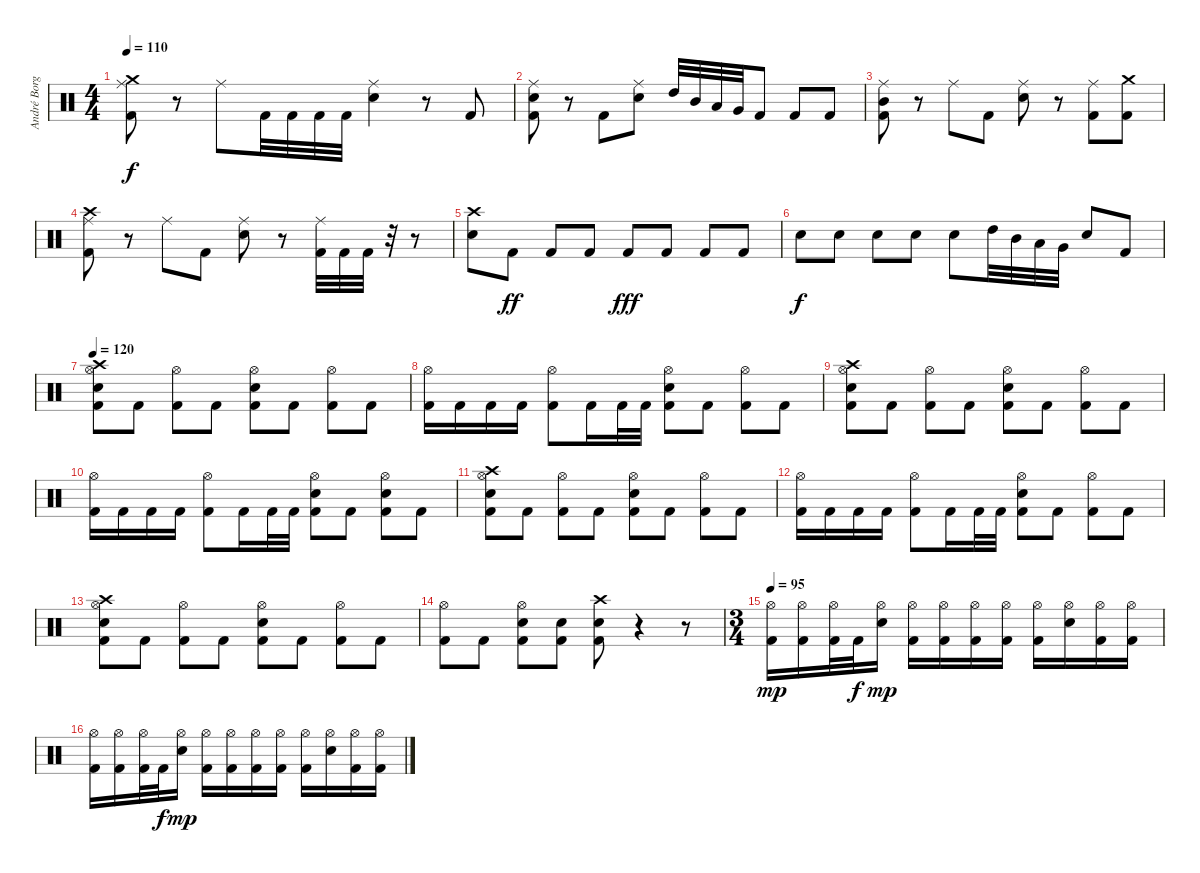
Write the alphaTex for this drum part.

\track ("André Borgman" "André Borg") {instrument percussion}
\staff {score}
\articulation defaults
\ts (4 4)
\tempo 110
\clef neutral
\ks c
("Crash medium (hit)" "Ride (middle)" "Kick (hit) 2").8{dy f} r.8 "Ride (middle)".8 "Kick (hit) 2".32 "Kick (hit) 2".32 "Kick (hit) 2".32 "Kick (hit) 2".32 ("Ride (middle)" "Electric Snare (hit)").4 r.8 "Kick (hit) 2".8 |
("Ride (middle)" "Electric Snare (hit)" "Kick (hit) 2").8 r.8 "Kick (hit) 2".8 ("Ride (middle)" "Electric Snare (hit)").8 "High Tom (hit)".32 "Mid Tom (hit)".32 "Low Tom (hit)".32 "Very Low Tom (hit)".32 "Kick (hit) 2".8 "Kick (hit) 2".8 "Kick (hit) 2".8 |
("Mid Tom (hit)" "Ride (middle)" "Kick (hit) 2").8 r.8 "Ride (middle)".8 "Kick (hit) 2".8 ("Ride (middle)" "Electric Snare (hit)").8 r.8 ("Ride (middle)" "Kick (hit) 2").8 ("Crash medium (hit)" "Kick (hit) 2").8 |
("Crash high (hit)" "Ride (middle)" "Kick (hit) 2").8 r.8 "Ride (middle)".8 "Kick (hit) 2".8 ("Ride (middle)" "Electric Snare (hit)").8 r.8 ("Ride (middle)" "Kick (hit) 2").32 "Kick (hit) 2".32 "Kick (hit) 2".32 r.32 r.8 |
("Crash high (hit)" "Electric Snare (hit)").8 "Kick (hit) 2".8{dy ff} "Kick (hit) 2".8 "Kick (hit) 2".8 "Kick (hit) 2".8{dy fff} "Kick (hit) 2".8 "Kick (hit) 2".8 "Kick (hit) 2".8 |
"Electric Snare (hit)".8{dy f} "Electric Snare (hit)".8 "Electric Snare (hit)".8 "Electric Snare (hit)".8 "Electric Snare (hit)".8 "High Tom (hit)".32 "Mid Tom (hit)".32 "Low Tom (hit)".32 "Very Low Tom (hit)".32 "Electric Snare (hit)".8 "Kick (hit) 2".8 |
\tempo 120
("Crash high (hit)" "Hi-Hat (open)" "Electric Snare (hit)" "Kick (hit) 2").8 "Kick (hit) 2".8 ("Hi-Hat (open)" "Kick (hit) 2").8 "Kick (hit) 2".8 ("Hi-Hat (open)" "Electric Snare (hit)" "Kick (hit) 2").8 "Kick (hit) 2".8 ("Hi-Hat (open)" "Kick (hit) 2").8 "Kick (hit) 2".8 |
("Hi-Hat (open)" "Kick (hit) 2").16 "Kick (hit) 2".16 "Kick (hit) 2".16 "Kick (hit) 2".16 ("Hi-Hat (open)" "Kick (hit) 2").8 "Kick (hit) 2".16 "Kick (hit) 2".32 "Kick (hit) 2".32 ("Hi-Hat (open)" "Electric Snare (hit)" "Kick (hit) 2").8 "Kick (hit) 2".8 ("Hi-Hat (open)" "Kick (hit) 2").8 "Kick (hit) 2".8 |
("Crash high (hit)" "Hi-Hat (open)" "Electric Snare (hit)" "Kick (hit) 2").8 "Kick (hit) 2".8 ("Hi-Hat (open)" "Kick (hit) 2").8 "Kick (hit) 2".8 ("Hi-Hat (open)" "Electric Snare (hit)" "Kick (hit) 2").8 "Kick (hit) 2".8 ("Hi-Hat (open)" "Kick (hit) 2").8 "Kick (hit) 2".8 |
("Hi-Hat (open)" "Kick (hit) 2").16 "Kick (hit) 2".16 "Kick (hit) 2".16 "Kick (hit) 2".16 ("Hi-Hat (open)" "Kick (hit) 2").8 "Kick (hit) 2".16 "Kick (hit) 2".32 "Kick (hit) 2".32 ("Hi-Hat (open)" "Electric Snare (hit)" "Kick (hit) 2").8 "Kick (hit) 2".8 ("Hi-Hat (open)" "Electric Snare (hit)" "Kick (hit) 2").8 "Kick (hit) 2".8 |
("Crash high (hit)" "Hi-Hat (open)" "Electric Snare (hit)" "Kick (hit) 2").8 "Kick (hit) 2".8 ("Hi-Hat (open)" "Kick (hit) 2").8 "Kick (hit) 2".8 ("Hi-Hat (open)" "Electric Snare (hit)" "Kick (hit) 2").8 "Kick (hit) 2".8 ("Hi-Hat (open)" "Kick (hit) 2").8 "Kick (hit) 2".8 |
("Hi-Hat (open)" "Kick (hit) 2").16 "Kick (hit) 2".16 "Kick (hit) 2".16 "Kick (hit) 2".16 ("Hi-Hat (open)" "Kick (hit) 2").8 "Kick (hit) 2".16 "Kick (hit) 2".32 "Kick (hit) 2".32 ("Hi-Hat (open)" "Electric Snare (hit)" "Kick (hit) 2").8 "Kick (hit) 2".8 ("Hi-Hat (open)" "Kick (hit) 2").8 "Kick (hit) 2".8 |
("Crash high (hit)" "Hi-Hat (open)" "Electric Snare (hit)" "Kick (hit) 2").8 "Kick (hit) 2".8 ("Hi-Hat (open)" "Kick (hit) 2").8 "Kick (hit) 2".8 ("Hi-Hat (open)" "Electric Snare (hit)" "Kick (hit) 2").8 "Kick (hit) 2".8 ("Hi-Hat (open)" "Kick (hit) 2").8 "Kick (hit) 2".8 |
("Hi-Hat (open)" "Kick (hit) 2").8 "Kick (hit) 2".8 ("Hi-Hat (open)" "Electric Snare (hit)" "Kick (hit) 2").8 ("Electric Snare (hit)" "Kick (hit) 2").8 ("Crash high (hit)" "Electric Snare (hit)" "Kick (hit) 2").8 r.4 r.8 |
\ts (3 4)
\tempo 95
("Hi-Hat (open)" "Kick (hit) 2").16{dy mp} ("Hi-Hat (open)" "Kick (hit) 2").16 ("Hi-Hat (open)" "Kick (hit) 2").32 "Kick (hit) 2".32{dy f} ("Hi-Hat (open)" "Electric Snare (hit)").16{dy mp} ("Hi-Hat (open)" "Kick (hit) 2").16 ("Hi-Hat (open)" "Kick (hit) 2").16 ("Hi-Hat (open)" "Kick (hit) 2").16 ("Hi-Hat (open)" "Kick (hit) 2").16 ("Hi-Hat (open)" "Kick (hit) 2").16 ("Hi-Hat (open)" "Electric Snare (hit)").16 ("Hi-Hat (open)" "Kick (hit) 2").16 ("Hi-Hat (open)" "Kick (hit) 2").16 |
("Hi-Hat (open)" "Kick (hit) 2").16 ("Hi-Hat (open)" "Kick (hit) 2").16 ("Hi-Hat (open)" "Kick (hit) 2").32 "Kick (hit) 2".32{dy f} ("Hi-Hat (open)" "Electric Snare (hit)").16{dy mp} ("Hi-Hat (open)" "Kick (hit) 2").16 ("Hi-Hat (open)" "Kick (hit) 2").16 ("Hi-Hat (open)" "Kick (hit) 2").16 ("Hi-Hat (open)" "Kick (hit) 2").16 ("Hi-Hat (open)" "Kick (hit) 2").16 ("Hi-Hat (open)" "Electric Snare (hit)").16 ("Hi-Hat (open)" "Kick (hit) 2").16 ("Hi-Hat (open)" "Kick (hit) 2").16
